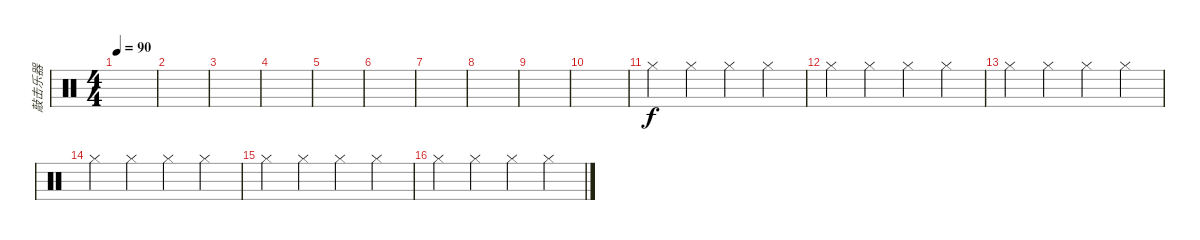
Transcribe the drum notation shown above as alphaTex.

\track ("敲击乐器" "敲击乐器") {instrument percussion}
\staff {score}
\articulation defaults
\ts (4 4)
\tempo 90
\clef neutral
\ks c
|
|
|
|
|
|
|
|
|
|
"Hi-Hat (closed)".4 "Hi-Hat (closed)".4 "Hi-Hat (closed)".4 "Hi-Hat (closed)".4 |
"Hi-Hat (closed)".4 "Hi-Hat (closed)".4 "Hi-Hat (closed)".4 "Hi-Hat (closed)".4 |
"Hi-Hat (closed)".4 "Hi-Hat (closed)".4 "Hi-Hat (closed)".4 "Hi-Hat (closed)".4 |
"Hi-Hat (closed)".4 "Hi-Hat (closed)".4 "Hi-Hat (closed)".4 "Hi-Hat (closed)".4 |
"Hi-Hat (closed)".4 "Hi-Hat (closed)".4 "Hi-Hat (closed)".4 "Hi-Hat (closed)".4 |
"Hi-Hat (closed)".4 "Hi-Hat (closed)".4 "Hi-Hat (closed)".4 "Hi-Hat (closed)".4
